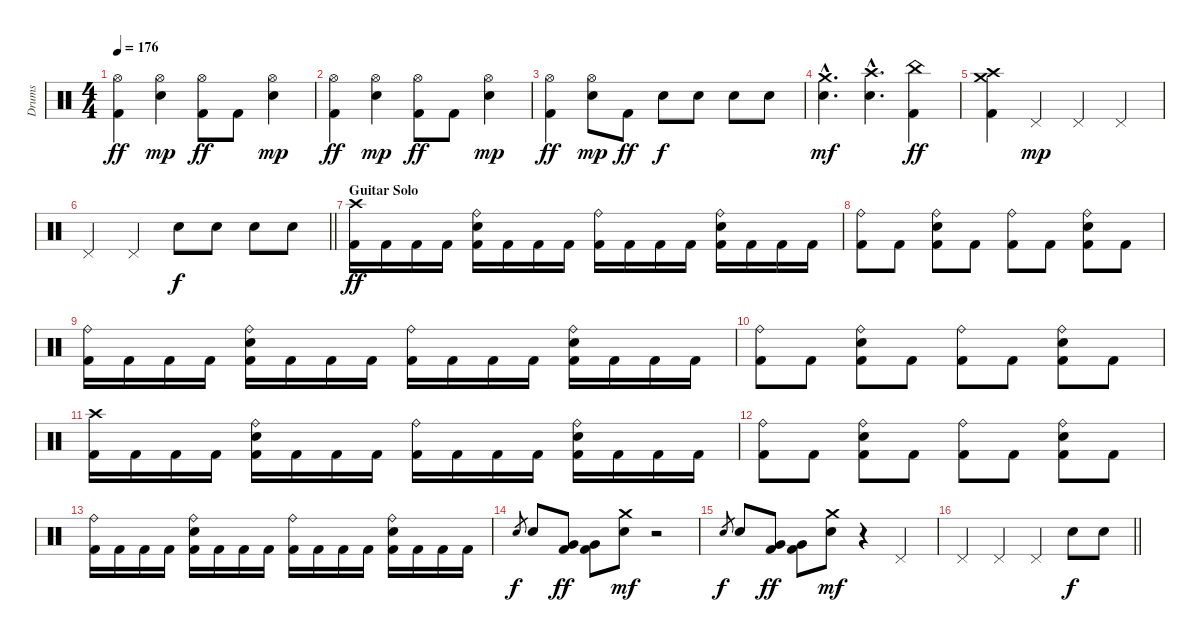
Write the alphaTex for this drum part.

\track ("Drums" "Drums") {instrument percussion}
\staff {score}
\articulation defaults
\ts (4 4)
\tempo 176
\clef neutral
\ks c
("Hi-Hat (open)" "Kick (hit) 2").4{dy ff} ("Hi-Hat (open)" "Electric Snare (hit)").4{dy mp} ("Hi-Hat (open)" "Kick (hit) 2").8{dy ff} "Kick (hit) 2".8 ("Hi-Hat (open)" "Electric Snare (hit)").4{dy mp} |
("Hi-Hat (open)" "Kick (hit) 2").4{dy ff} ("Hi-Hat (open)" "Electric Snare (hit)").4{dy mp} ("Hi-Hat (open)" "Kick (hit) 2").8{dy ff} "Kick (hit) 2".8 ("Hi-Hat (open)" "Electric Snare (hit)").4{dy mp} |
("Hi-Hat (open)" "Kick (hit) 2").4{dy ff} ("Hi-Hat (open)" "Electric Snare (hit)").8{dy mp} "Kick (hit) 2".8{dy ff} "Electric Snare (hit)".8{dy f} "Electric Snare (hit)".8 "Electric Snare (hit)".8 "Electric Snare (hit)".8 |
("Crash medium (hit)"{hac} "Electric Snare (hit)"{hac}).4{d dy mf} ("Crash high (hit)"{hac} "Electric Snare (hit)"{hac}).4{d} ("China (hit)" "Kick (hit) 2").4{dy ff} |
("Crash medium (hit)" "Crash high (hit)" "Kick (hit) 2").4 "Pedal Hi-Hat (hit)".4{dy mp} "Pedal Hi-Hat (hit)".4 "Pedal Hi-Hat (hit)".4 |
\barLineRight lightlight "Pedal Hi-Hat (hit)".4 "Pedal Hi-Hat (hit)".4 "Electric Snare (hit)".8{dy f} "Electric Snare (hit)".8 "Electric Snare (hit)".8 "Electric Snare (hit)".8
|
\section ("" "Guitar Solo")
("Crash high (hit)" "Kick (hit) 2").16{dy ff} "Kick (hit) 2".16 "Kick (hit) 2".16 "Kick (hit) 2".16 ("Ride (bell)" "Electric Snare (hit)" "Kick (hit) 2").16 "Kick (hit) 2".16 "Kick (hit) 2".16 "Kick (hit) 2".16 ("Ride (bell)" "Kick (hit) 2").16 "Kick (hit) 2".16 "Kick (hit) 2".16 "Kick (hit) 2".16 ("Ride (bell)" "Electric Snare (hit)" "Kick (hit) 2").16 "Kick (hit) 2".16 "Kick (hit) 2".16 "Kick (hit) 2".16 |
("Ride (bell)" "Kick (hit) 2").8 "Kick (hit) 2".8 ("Ride (bell)" "Electric Snare (hit)" "Kick (hit) 2").8 "Kick (hit) 2".8 ("Ride (bell)" "Kick (hit) 2").8 "Kick (hit) 2".8 ("Ride (bell)" "Electric Snare (hit)" "Kick (hit) 2").8 "Kick (hit) 2".8 |
("Ride (bell)" "Kick (hit) 2").16 "Kick (hit) 2".16 "Kick (hit) 2".16 "Kick (hit) 2".16 ("Ride (bell)" "Electric Snare (hit)" "Kick (hit) 2").16 "Kick (hit) 2".16 "Kick (hit) 2".16 "Kick (hit) 2".16 ("Ride (bell)" "Kick (hit) 2").16 "Kick (hit) 2".16 "Kick (hit) 2".16 "Kick (hit) 2".16 ("Ride (bell)" "Electric Snare (hit)" "Kick (hit) 2").16 "Kick (hit) 2".16 "Kick (hit) 2".16 "Kick (hit) 2".16 |
("Ride (bell)" "Kick (hit) 2").8 "Kick (hit) 2".8 ("Ride (bell)" "Electric Snare (hit)" "Kick (hit) 2").8 "Kick (hit) 2".8 ("Ride (bell)" "Kick (hit) 2").8 "Kick (hit) 2".8 ("Ride (bell)" "Electric Snare (hit)" "Kick (hit) 2").8 "Kick (hit) 2".8 |
("Crash high (hit)" "Kick (hit) 2").16 "Kick (hit) 2".16 "Kick (hit) 2".16 "Kick (hit) 2".16 ("Ride (bell)" "Electric Snare (hit)" "Kick (hit) 2").16 "Kick (hit) 2".16 "Kick (hit) 2".16 "Kick (hit) 2".16 ("Ride (bell)" "Kick (hit) 2").16 "Kick (hit) 2".16 "Kick (hit) 2".16 "Kick (hit) 2".16 ("Ride (bell)" "Electric Snare (hit)" "Kick (hit) 2").16 "Kick (hit) 2".16 "Kick (hit) 2".16 "Kick (hit) 2".16 |
("Ride (bell)" "Kick (hit) 2").8 "Kick (hit) 2".8 ("Ride (bell)" "Electric Snare (hit)" "Kick (hit) 2").8 "Kick (hit) 2".8 ("Ride (bell)" "Kick (hit) 2").8 "Kick (hit) 2".8 ("Ride (bell)" "Electric Snare (hit)" "Kick (hit) 2").8 "Kick (hit) 2".8 |
("Ride (bell)" "Kick (hit) 2").16 "Kick (hit) 2".16 "Kick (hit) 2".16 "Kick (hit) 2".16 ("Ride (bell)" "Electric Snare (hit)" "Kick (hit) 2").16 "Kick (hit) 2".16 "Kick (hit) 2".16 "Kick (hit) 2".16 ("Ride (bell)" "Kick (hit) 2").16 "Kick (hit) 2".16 "Kick (hit) 2".16 "Kick (hit) 2".16 ("Ride (bell)" "Electric Snare (hit)" "Kick (hit) 2").16 "Kick (hit) 2".16 "Kick (hit) 2".16 "Kick (hit) 2".16 |
"Electric Snare (hit)".8{gr dy f} "Electric Snare (hit)".8 ("Very Low Tom (hit)" "Kick (hit) 2").8{dy ff} ("Very Low Tom (hit)" "Kick (hit) 2").8 ("Crash medium (hit)" "Electric Snare (hit)").8{dy mf} r.2 |
"Electric Snare (hit)".8{gr dy f} "Electric Snare (hit)".8 ("Very Low Tom (hit)" "Kick (hit) 2").8{dy ff} ("Very Low Tom (hit)" "Kick (hit) 2").8 ("Crash medium (hit)" "Electric Snare (hit)").8{dy mf} r.4 "Pedal Hi-Hat (hit)".4 |
\barLineRight lightlight "Pedal Hi-Hat (hit)".4 "Pedal Hi-Hat (hit)".4 "Pedal Hi-Hat (hit)".4 "Electric Snare (hit)".8{dy f} "Electric Snare (hit)".8
